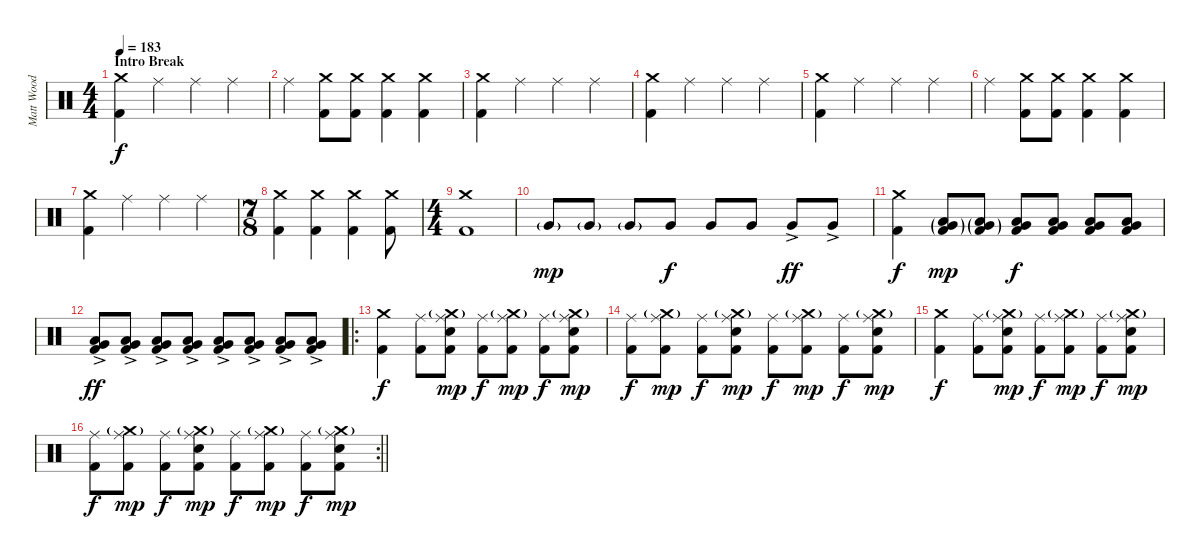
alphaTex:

\track ("Matt Wood" "Matt Wood") {instrument percussion}
\staff {score}
\articulation defaults
\ts (4 4)
\section ("" "Intro Break")
\tempo 183
\clef neutral
\ks c
("Crash medium (hit)" "Kick (hit) 2").4{dy f} "Ride (middle)".4 "Ride (middle)".4 "Ride (middle)".4 |
"Ride (middle)".4 ("Crash medium (hit)" "Kick (hit) 2").8 ("Crash medium (hit)" "Kick (hit) 2").8 ("Crash medium (hit)" "Kick (hit) 2").4 ("Crash medium (hit)" "Kick (hit) 2").4 |
("Crash medium (hit)" "Kick (hit) 2").4 "Ride (middle)".4 "Ride (middle)".4 "Ride (middle)".4 |
("Crash medium (hit)" "Kick (hit) 2").4 "Ride (middle)".4 "Ride (middle)".4 "Ride (middle)".4 |
("Crash medium (hit)" "Kick (hit) 2").4 "Ride (middle)".4 "Ride (middle)".4 "Ride (middle)".4 |
"Ride (middle)".4 ("Crash medium (hit)" "Kick (hit) 2").8 ("Crash medium (hit)" "Kick (hit) 2").8 ("Crash medium (hit)" "Kick (hit) 2").4 ("Crash medium (hit)" "Kick (hit) 2").4 |
("Crash medium (hit)" "Kick (hit) 2").4 "Ride (middle)".4 "Ride (middle)".4 "Ride (middle)".4 |
\ts (7 8)
("Crash medium (hit)" "Kick (hit) 2").4 ("Crash medium (hit)" "Kick (hit) 2").4 ("Crash medium (hit)" "Kick (hit) 2").4 ("Crash medium (hit)" "Kick (hit) 2").8 |
\ts (4 4)
("Crash medium (hit)" "Kick (hit) 2").1 |
"Very Low Tom (hit)"{g}.8{dy mp} "Very Low Tom (hit)"{g}.8 "Very Low Tom (hit)"{g}.8 "Very Low Tom (hit)".8{dy f} "Very Low Tom (hit)".8 "Very Low Tom (hit)".8 "Very Low Tom (hit)"{ac}.8{dy ff} "Very Low Tom (hit)"{ac}.8 |
("Crash medium (hit)" "Kick (hit) 2").4{dy f} ("Low Tom (hit)"{g} "Very Low Tom (hit)"{g} "Kick (hit) 2"{g}).8{dy mp} ("Low Tom (hit)"{g} "Very Low Tom (hit)"{g} "Kick (hit) 2"{g}).8 ("Low Tom (hit)" "Very Low Tom (hit)" "Kick (hit) 2").8{dy f} ("Low Tom (hit)" "Very Low Tom (hit)" "Kick (hit) 2").8 ("Low Tom (hit)" "Very Low Tom (hit)" "Kick (hit) 2").8 ("Low Tom (hit)" "Very Low Tom (hit)" "Kick (hit) 2").8 |
("Low Tom (hit)" "Very Low Tom (hit)" "Kick (hit) 2"{ac}).8{dy ff} ("Low Tom (hit)" "Very Low Tom (hit)" "Kick (hit) 2"{ac}).8 ("Low Tom (hit)" "Very Low Tom (hit)" "Kick (hit) 2"{ac}).8 ("Low Tom (hit)" "Very Low Tom (hit)" "Kick (hit) 2"{ac}).8 ("Low Tom (hit)" "Very Low Tom (hit)" "Kick (hit) 2"{ac}).8 ("Low Tom (hit)" "Very Low Tom (hit)" "Kick (hit) 2"{ac}).8 ("Low Tom (hit)" "Very Low Tom (hit)" "Kick (hit) 2"{ac}).8 ("Low Tom (hit)" "Very Low Tom (hit)" "Kick (hit) 2"{ac}).8 |
\ro
("Crash medium (hit)" "Kick (hit) 2").4{dy f} ("Ride (middle)" "Kick (hit) 2").8 ("Crash medium (hit)"{g} "Ride (middle)" "Snare (hit) 2" "Kick (hit) 2").8{dy mp} ("Ride (middle)" "Kick (hit) 2").8{dy f} ("Crash medium (hit)"{g} "Ride (middle)" "Kick (hit) 2").8{dy mp} ("Ride (middle)" "Kick (hit) 2").8{dy f} ("Crash medium (hit)"{g} "Ride (middle)" "Snare (hit) 2" "Kick (hit) 2").8{dy mp} |
("Ride (middle)" "Kick (hit) 2").8{dy f} ("Crash medium (hit)"{g} "Ride (middle)" "Kick (hit) 2").8{dy mp} ("Ride (middle)" "Kick (hit) 2").8{dy f} ("Crash medium (hit)"{g} "Ride (middle)" "Snare (hit) 2" "Kick (hit) 2").8{dy mp} ("Ride (middle)" "Kick (hit) 2").8{dy f} ("Crash medium (hit)"{g} "Ride (middle)" "Kick (hit) 2").8{dy mp} ("Ride (middle)" "Kick (hit) 2").8{dy f} ("Crash medium (hit)"{g} "Ride (middle)" "Snare (hit) 2" "Kick (hit) 2").8{dy mp} |
("Crash medium (hit)" "Kick (hit) 2").4{dy f} ("Ride (middle)" "Kick (hit) 2").8 ("Crash medium (hit)"{g} "Ride (middle)" "Snare (hit) 2" "Kick (hit) 2").8{dy mp} ("Ride (middle)" "Kick (hit) 2").8{dy f} ("Crash medium (hit)"{g} "Ride (middle)" "Kick (hit) 2").8{dy mp} ("Ride (middle)" "Kick (hit) 2").8{dy f} ("Crash medium (hit)"{g} "Ride (middle)" "Snare (hit) 2" "Kick (hit) 2").8{dy mp} |
\rc 2
\barLineRight lightlight
("Ride (middle)" "Kick (hit) 2").8{dy f} ("Crash medium (hit)"{g} "Ride (middle)" "Kick (hit) 2").8{dy mp} ("Ride (middle)" "Kick (hit) 2").8{dy f} ("Crash medium (hit)"{g} "Ride (middle)" "Snare (hit) 2" "Kick (hit) 2").8{dy mp} ("Ride (middle)" "Kick (hit) 2").8{dy f} ("Crash medium (hit)"{g} "Ride (middle)" "Kick (hit) 2").8{dy mp} ("Ride (middle)" "Kick (hit) 2").8{dy f} ("Crash medium (hit)"{g} "Ride (middle)" "Snare (hit) 2" "Kick (hit) 2").8{dy mp}
